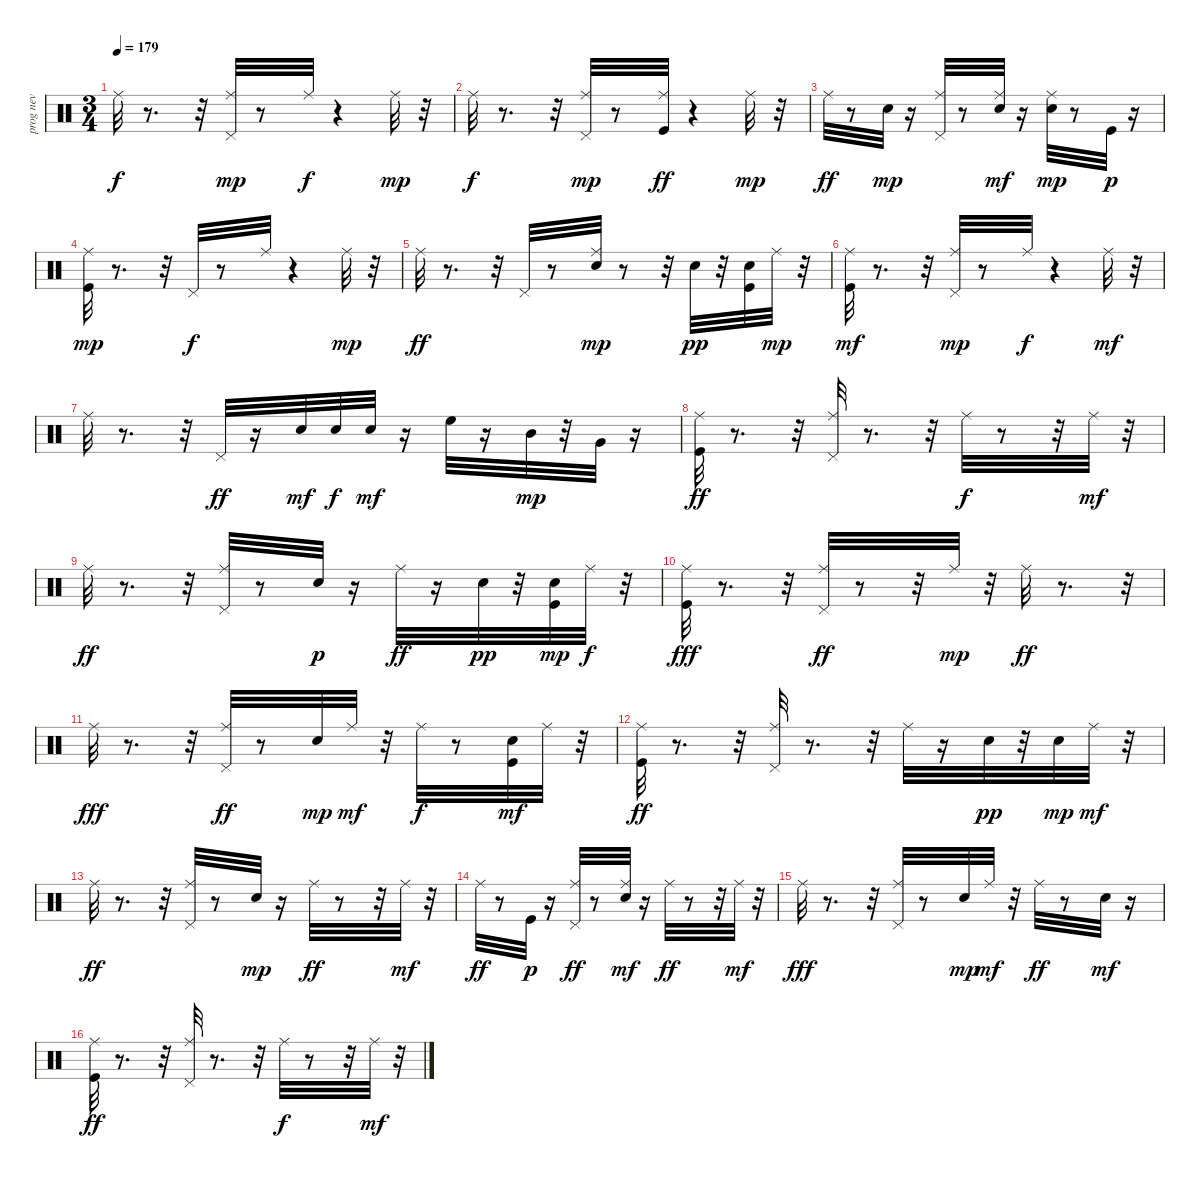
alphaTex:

\track ("prog nev" "prog nev") {instrument percussion}
\staff {score}
\articulation defaults
\ts (3 4)
\tempo 179
\clef neutral
\ks c "Ride (middle)".32{dy f}
r.8{d} r.32 ("Pedal Hi-Hat (hit)" "Ride (middle)").32{dy mp} r.8 "Ride (middle)".32{dy f} r.4 "Ride (middle)".32{dy mp} r.32 |
"Ride (middle)".32{dy f} r.8{d} r.32 ("Pedal Hi-Hat (hit)" "Ride (middle)").32{dy mp} r.8 ("Kick (hit)" "Ride (middle)").32{dy ff} r.4 "Ride (middle)".32{dy mp} r.32 |
"Ride (middle)".32{dy ff} r.8 "Snare (hit) 2".32{dy mp} r.16 ("Pedal Hi-Hat (hit)" "Ride (middle)").32 r.8 ("Snare (hit) 2" "Ride (middle)").32{dy mf} r.16 ("Hand Clap (hit)" "Ride (middle)").32{dy mp} r.8 "Kick (hit)".32{dy p} r.16 |
("Kick (hit)" "Ride (middle)").32{dy mp} r.8{d} r.32 "Pedal Hi-Hat (hit)".32{dy f} r.8 "Ride (middle)".32 r.4 "Ride (middle)".32{dy mp} r.32 |
"Ride (middle)".32{dy ff} r.8{d} r.32 "Pedal Hi-Hat (hit)".32 r.8 ("Hand Clap (hit)" "Ride (middle)").32{dy mp} r.8 r.32 "Snare (hit) 2".32{dy pp} r.32 ("Kick (hit)" "Snare (hit) 2").32 "Ride (middle)".32{dy mp} r.32 |
("Kick (hit)" "Ride (middle)").32{dy mf} r.8{d} r.32 ("Pedal Hi-Hat (hit)" "Ride (middle)").32{dy mp} r.8 "Ride (middle)".32{dy f} r.4 "Ride (middle)".32{dy mf} r.32 |
"Ride (middle)".32 r.8{d} r.32 "Pedal Hi-Hat (hit)".32{dy ff} r.16 "Snare (hit) 2".32{dy mf} "Snare (hit) 2".32{dy f} "Hand Clap (hit)".32{dy mf} r.16 "High Floor Tom (hit)".32 r.16 "Mid Tom (hit)".32{dy mp} r.32 "Very Low Tom (hit)".32 r.16 |
("Kick (hit)" "Ride (middle)").32{dy ff} r.8{d} r.32 ("Pedal Hi-Hat (hit)" "Ride (middle)").32 r.8{d} r.32 "Ride (middle)".32{dy f} r.8 r.32 "Ride (middle)".32{dy mf} r.32 |
"Ride (middle)".32{dy ff} r.8{d} r.32 ("Pedal Hi-Hat (hit)" "Ride (middle)").32 r.8 "Hand Clap (hit)".32{dy p} r.16 "Ride (middle)".32{dy ff} r.16 "Snare (hit) 2".32{dy pp} r.32 ("Kick (hit)" "Snare (hit) 2").32{dy mp} "Ride (middle)".32{dy f} r.32 |
("Kick (hit)" "Ride (middle)").32{dy fff} r.8{d} r.32 ("Pedal Hi-Hat (hit)" "Ride (middle)").32{dy ff} r.8 r.32 "Ride (middle)".32{dy mp} r.32 "Ride (middle)".32{dy ff} r.8{d} r.32 |
"Ride (middle)".32{dy fff} r.8{d} r.32 ("Pedal Hi-Hat (hit)" "Ride (middle)").32{dy ff} r.8 "Snare (hit) 2".32{dy mp} "Ride (middle)".32{dy mf} r.32 "Ride (middle)".32{dy f} r.8 ("Kick (hit)" "Snare (hit) 2").32{dy mf} "Ride (middle)".32 r.32 |
("Kick (hit)" "Ride (middle)").32{dy ff} r.8{d} r.32 ("Pedal Hi-Hat (hit)" "Ride (middle)").32 r.8{d} r.32 "Ride (middle)".32 r.16 "Snare (hit) 2".32{dy pp} r.32 "Snare (hit) 2".32{dy mp} "Ride (middle)".32{dy mf} r.32 |
"Ride (middle)".32{dy ff} r.8{d} r.32 ("Pedal Hi-Hat (hit)" "Ride (middle)").32 r.8 "Snare (hit) 2".32{dy mp} r.16 "Ride (middle)".32{dy ff} r.8 r.32 "Ride (middle)".32{dy mf} r.32 |
"Ride (middle)".32{dy ff} r.8 "Kick (hit)".32{dy p} r.16 ("Pedal Hi-Hat (hit)" "Ride (middle)").32{dy ff} r.8 ("Hand Clap (hit)" "Ride (middle)").32{dy mf} r.16 "Ride (middle)".32{dy ff} r.8 r.32 "Ride (middle)".32{dy mf} r.32 |
"Ride (middle)".32{dy fff} r.8{d} r.32 ("Pedal Hi-Hat (hit)" "Ride (middle)").32 r.8 "Snare (hit) 2".32{dy mp} "Ride (middle)".32{dy mf} r.32 "Ride (middle)".32{dy ff} r.8 "Snare (hit) 2".32{dy mf} r.16 |
("Kick (hit)" "Ride (middle)").32{dy ff} r.8{d} r.32 ("Pedal Hi-Hat (hit)" "Ride (middle)").32 r.8{d} r.32 "Ride (middle)".32{dy f} r.8 r.32 "Ride (middle)".32{dy mf} r.32
